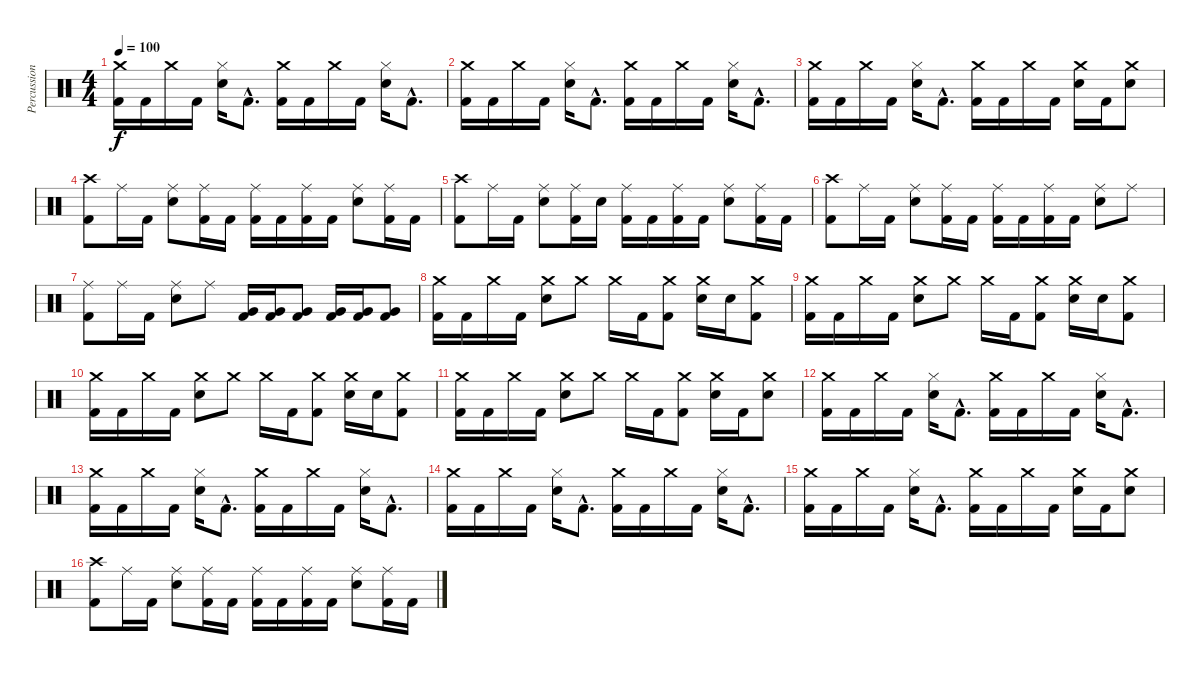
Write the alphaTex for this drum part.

\track ("Percussions" "Percussion") {instrument percussion}
\staff {score}
\articulation defaults
\ts (4 4)
\tempo 100
\clef neutral
\ks c
("Crash medium (hit)" "Kick (hit) 2").16{dy f} "Kick (hit) 2".16 "Crash medium (hit)".16 "Kick (hit) 2".16 ("Electric Snare (hit)" "Hi-Hat (closed)").16 "Kick (hit) 2"{hac}.8{d} ("Crash medium (hit)" "Kick (hit) 2").16 "Kick (hit) 2".16 "Crash medium (hit)".16 "Kick (hit) 2".16 ("Electric Snare (hit)" "Hi-Hat (closed)").16 "Kick (hit) 2"{hac}.8{d} |
("Crash medium (hit)" "Kick (hit) 2").16 "Kick (hit) 2".16 "Crash medium (hit)".16 "Kick (hit) 2".16 ("Electric Snare (hit)" "Hi-Hat (closed)").16 "Kick (hit) 2"{hac}.8{d} ("Crash medium (hit)" "Kick (hit) 2").16 "Kick (hit) 2".16 "Crash medium (hit)".16 "Kick (hit) 2".16 ("Electric Snare (hit)" "Hi-Hat (closed)").16 "Kick (hit) 2"{hac}.8{d} |
("Crash medium (hit)" "Kick (hit) 2").16 "Kick (hit) 2".16 "Crash medium (hit)".16 "Kick (hit) 2".16 ("Electric Snare (hit)" "Hi-Hat (closed)").16 "Kick (hit) 2"{hac}.8{d} ("Crash medium (hit)" "Kick (hit) 2").16 "Kick (hit) 2".16 "Crash medium (hit)".16 "Kick (hit) 2".16 ("Electric Snare (hit)" "Crash medium (hit)").16 "Kick (hit) 2".16 ("Electric Snare (hit)" "Crash medium (hit)").8 |
("Crash high (hit)" "Kick (hit) 2").8 "Ride (middle)".16 "Kick (hit) 2".16 ("Electric Snare (hit)" "Ride (middle)").8 ("Ride (middle)" "Kick (hit) 2").16 "Kick (hit) 2".16 ("Ride (middle)" "Kick (hit) 2").16 "Kick (hit) 2".16 ("Ride (middle)" "Kick (hit) 2").16 "Kick (hit) 2".16 ("Electric Snare (hit)" "Ride (middle)").8 ("Ride (middle)" "Kick (hit) 2").16 "Kick (hit) 2".16 |
("Crash high (hit)" "Kick (hit) 2").8 "Ride (middle)".16 "Kick (hit) 2".16 ("Electric Snare (hit)" "Ride (middle)").8 ("Ride (middle)" "Kick (hit) 2").16 "Electric Snare (hit)".16 ("Ride (middle)" "Kick (hit) 2").16 "Kick (hit) 2".16 ("Ride (middle)" "Kick (hit) 2").16 "Kick (hit) 2".16 ("Electric Snare (hit)" "Ride (middle)").8 ("Ride (middle)" "Kick (hit) 2").16 "Kick (hit) 2".16 |
("Crash high (hit)" "Kick (hit) 2").8 "Ride (middle)".16 "Kick (hit) 2".16 ("Electric Snare (hit)" "Ride (middle)").8 ("Ride (middle)" "Kick (hit) 2").16 "Kick (hit) 2".16 ("Ride (middle)" "Kick (hit) 2").16 "Kick (hit) 2".16 ("Ride (middle)" "Kick (hit) 2").16 "Kick (hit) 2".16 ("Electric Snare (hit)" "Ride (middle)").8 "Ride (middle)".8 |
("Ride (middle)" "Kick (hit) 2").8 "Ride (middle)".16 "Kick (hit) 2".16 ("Electric Snare (hit)" "Ride (middle)").8 "Ride (middle)".8 ("Very Low Tom (hit)" "Kick (hit) 2").16 ("Very Low Tom (hit)" "Kick (hit) 2").16 ("Very Low Tom (hit)" "Kick (hit) 2").8 ("Very Low Tom (hit)" "Kick (hit) 2").16 ("Very Low Tom (hit)" "Kick (hit) 2").16 ("Very Low Tom (hit)" "Kick (hit) 2").8 |
("Crash medium (hit)" "Kick (hit) 2").16 "Kick (hit) 2".16 "Crash medium (hit)".16 "Kick (hit) 2".16 ("Electric Snare (hit)" "Crash medium (hit)").8 "Crash medium (hit)".8 "Crash medium (hit)".16 "Kick (hit) 2".16 ("Crash medium (hit)" "Kick (hit) 2").8 ("Electric Snare (hit)" "Crash medium (hit)").16 "Electric Snare (hit)".16 ("Crash medium (hit)" "Kick (hit) 2").8 |
("Crash medium (hit)" "Kick (hit) 2").16 "Kick (hit) 2".16 "Crash medium (hit)".16 "Kick (hit) 2".16 ("Electric Snare (hit)" "Crash medium (hit)").8 "Crash medium (hit)".8 "Crash medium (hit)".16 "Kick (hit) 2".16 ("Crash medium (hit)" "Kick (hit) 2").8 ("Electric Snare (hit)" "Crash medium (hit)").16 "Electric Snare (hit)".16 ("Crash medium (hit)" "Kick (hit) 2").8 |
("Crash medium (hit)" "Kick (hit) 2").16 "Kick (hit) 2".16 "Crash medium (hit)".16 "Kick (hit) 2".16 ("Electric Snare (hit)" "Crash medium (hit)").8 "Crash medium (hit)".8 "Crash medium (hit)".16 "Kick (hit) 2".16 ("Crash medium (hit)" "Kick (hit) 2").8 ("Electric Snare (hit)" "Crash medium (hit)").16 "Electric Snare (hit)".16 ("Crash medium (hit)" "Kick (hit) 2").8 |
("Crash medium (hit)" "Kick (hit) 2").16 "Kick (hit) 2".16 "Crash medium (hit)".16 "Kick (hit) 2".16 ("Electric Snare (hit)" "Crash medium (hit)").8 "Crash medium (hit)".8 "Crash medium (hit)".16 "Kick (hit) 2".16 ("Crash medium (hit)" "Kick (hit) 2").8 ("Electric Snare (hit)" "Crash medium (hit)").16 "Kick (hit) 2".16 ("Electric Snare (hit)" "Crash medium (hit)").8 |
("Crash medium (hit)" "Kick (hit) 2").16 "Kick (hit) 2".16 "Crash medium (hit)".16 "Kick (hit) 2".16 ("Electric Snare (hit)" "Hi-Hat (closed)").16 "Kick (hit) 2"{hac}.8{d} ("Crash medium (hit)" "Kick (hit) 2").16 "Kick (hit) 2".16 "Crash medium (hit)".16 "Kick (hit) 2".16 ("Electric Snare (hit)" "Hi-Hat (closed)").16 "Kick (hit) 2"{hac}.8{d} |
("Crash medium (hit)" "Kick (hit) 2").16 "Kick (hit) 2".16 "Crash medium (hit)".16 "Kick (hit) 2".16 ("Electric Snare (hit)" "Hi-Hat (closed)").16 "Kick (hit) 2"{hac}.8{d} ("Crash medium (hit)" "Kick (hit) 2").16 "Kick (hit) 2".16 "Crash medium (hit)".16 "Kick (hit) 2".16 ("Electric Snare (hit)" "Hi-Hat (closed)").16 "Kick (hit) 2"{hac}.8{d} |
("Crash medium (hit)" "Kick (hit) 2").16 "Kick (hit) 2".16 "Crash medium (hit)".16 "Kick (hit) 2".16 ("Electric Snare (hit)" "Hi-Hat (closed)").16 "Kick (hit) 2"{hac}.8{d} ("Crash medium (hit)" "Kick (hit) 2").16 "Kick (hit) 2".16 "Crash medium (hit)".16 "Kick (hit) 2".16 ("Electric Snare (hit)" "Hi-Hat (closed)").16 "Kick (hit) 2"{hac}.8{d} |
("Crash medium (hit)" "Kick (hit) 2").16 "Kick (hit) 2".16 "Crash medium (hit)".16 "Kick (hit) 2".16 ("Electric Snare (hit)" "Hi-Hat (closed)").16 "Kick (hit) 2"{hac}.8{d} ("Crash medium (hit)" "Kick (hit) 2").16 "Kick (hit) 2".16 "Crash medium (hit)".16 "Kick (hit) 2".16 ("Electric Snare (hit)" "Crash medium (hit)").16 "Kick (hit) 2".16 ("Electric Snare (hit)" "Crash medium (hit)").8 |
("Crash high (hit)" "Kick (hit) 2").8 "Ride (middle)".16 "Kick (hit) 2".16 ("Electric Snare (hit)" "Ride (middle)").8 ("Ride (middle)" "Kick (hit) 2").16 "Kick (hit) 2".16 ("Ride (middle)" "Kick (hit) 2").16 "Kick (hit) 2".16 ("Ride (middle)" "Kick (hit) 2").16 "Kick (hit) 2".16 ("Electric Snare (hit)" "Ride (middle)").8 ("Ride (middle)" "Kick (hit) 2").16 "Kick (hit) 2".16
